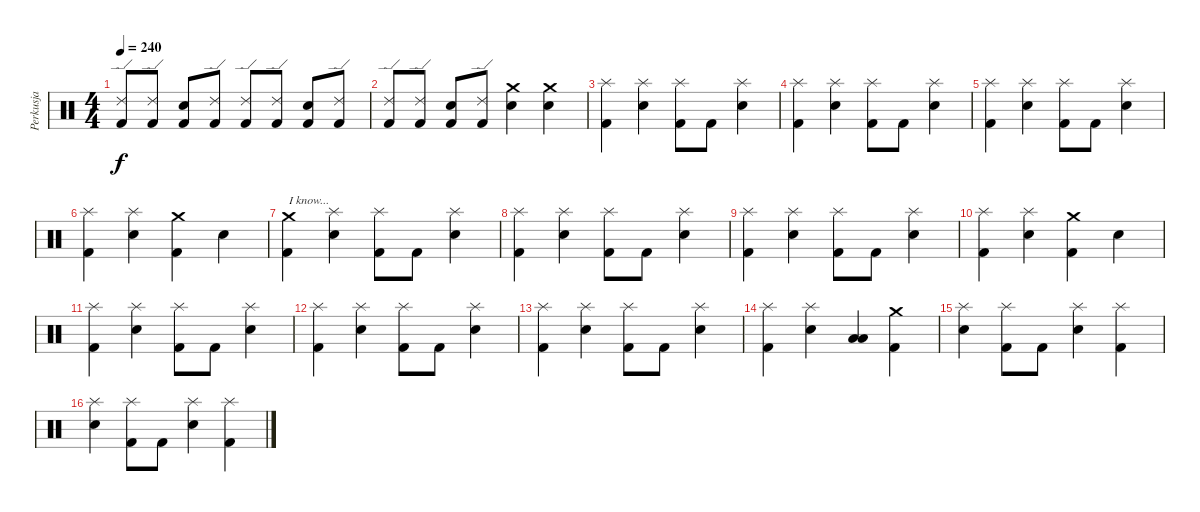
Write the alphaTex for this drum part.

\track ("Perkusja" "Perkusja") {instrument percussion}
\staff {score}
\articulation defaults
\ts (4 4)
\tempo 240
\clef neutral
\ks c
("Ride (edge) 2" "Kick (hit) 2").8{dy f} ("Ride (edge) 2" "Kick (hit) 2").8 ("Snare (hit) 2" "Kick (hit) 2").8 ("Ride (edge) 2" "Kick (hit) 2").8 ("Ride (edge) 2" "Kick (hit) 2").8 ("Ride (edge) 2" "Kick (hit) 2").8 ("Snare (hit) 2" "Kick (hit) 2").8 ("Ride (edge) 2" "Kick (hit) 2").8 |
("Ride (edge) 2" "Kick (hit) 2").8 ("Ride (edge) 2" "Kick (hit) 2").8 ("Snare (hit) 2" "Kick (hit) 2").8 ("Ride (edge) 2" "Kick (hit) 2").8 ("Crash medium (hit)" "Snare (hit) 2").4 ("Crash medium (hit)" "Snare (hit) 2").4 |
("Splash (hit)" "Kick (hit) 2").4 ("Splash (hit)" "Snare (hit) 2").4 ("Splash (hit)" "Kick (hit) 2").8 "Kick (hit) 2".8 ("Splash (hit)" "Snare (hit) 2").4 |
("Splash (hit)" "Kick (hit) 2").4 ("Splash (hit)" "Snare (hit) 2").4 ("Splash (hit)" "Kick (hit) 2").8 "Kick (hit) 2".8 ("Splash (hit)" "Snare (hit) 2").4 |
("Splash (hit)" "Kick (hit) 2").4 ("Splash (hit)" "Snare (hit) 2").4 ("Splash (hit)" "Kick (hit) 2").8 "Kick (hit) 2".8 ("Splash (hit)" "Snare (hit) 2").4 |
("Splash (hit)" "Kick (hit) 2").4 ("Splash (hit)" "Snare (hit) 2").4 ("Crash medium (hit)" "Kick (hit) 2").4 "Snare (hit) 2".4 |
("Crash medium (hit)" "Kick (hit) 2").4{txt "I know..."} ("Splash (hit)" "Snare (hit) 2").4 ("Splash (hit)" "Kick (hit) 2").8 "Kick (hit) 2".8 ("Splash (hit)" "Snare (hit) 2").4 |
("Splash (hit)" "Kick (hit) 2").4 ("Splash (hit)" "Snare (hit) 2").4 ("Splash (hit)" "Kick (hit) 2").8 "Kick (hit) 2".8 ("Splash (hit)" "Snare (hit) 2").4 |
("Splash (hit)" "Kick (hit) 2").4 ("Splash (hit)" "Snare (hit) 2").4 ("Splash (hit)" "Kick (hit) 2").8 "Kick (hit) 2".8 ("Splash (hit)" "Snare (hit) 2").4 |
("Splash (hit)" "Kick (hit) 2").4 ("Splash (hit)" "Snare (hit) 2").4 ("Crash medium (hit)" "Kick (hit) 2").4 "Snare (hit) 2".4 |
("Splash (hit)" "Kick (hit) 2").4 ("Splash (hit)" "Snare (hit) 2").4 ("Splash (hit)" "Kick (hit) 2").8 "Kick (hit) 2".8 ("Splash (hit)" "Snare (hit) 2").4 |
("Splash (hit)" "Kick (hit) 2").4 ("Splash (hit)" "Snare (hit) 2").4 ("Splash (hit)" "Kick (hit) 2").8 "Kick (hit) 2".8 ("Splash (hit)" "Snare (hit) 2").4 |
("Splash (hit)" "Kick (hit) 2").4 ("Splash (hit)" "Snare (hit) 2").4 ("Splash (hit)" "Kick (hit) 2").8 "Kick (hit) 2".8 ("Splash (hit)" "Snare (hit) 2").4 |
("Splash (hit)" "Kick (hit) 2").4 ("Splash (hit)" "Snare (hit) 2").4 ("Low Tom (hit)" "Low Tom (hit)").4 ("Crash medium (hit)" "Kick (hit) 2").4 |
("Splash (hit)" "Snare (hit) 2").4 ("Splash (hit)" "Kick (hit) 2").8 "Kick (hit) 2".8 ("Splash (hit)" "Snare (hit) 2").4 ("Splash (hit)" "Kick (hit) 2").4 |
("Splash (hit)" "Snare (hit) 2").4 ("Splash (hit)" "Kick (hit) 2").8 "Kick (hit) 2".8 ("Splash (hit)" "Snare (hit) 2").4 ("Splash (hit)" "Kick (hit) 2").4
